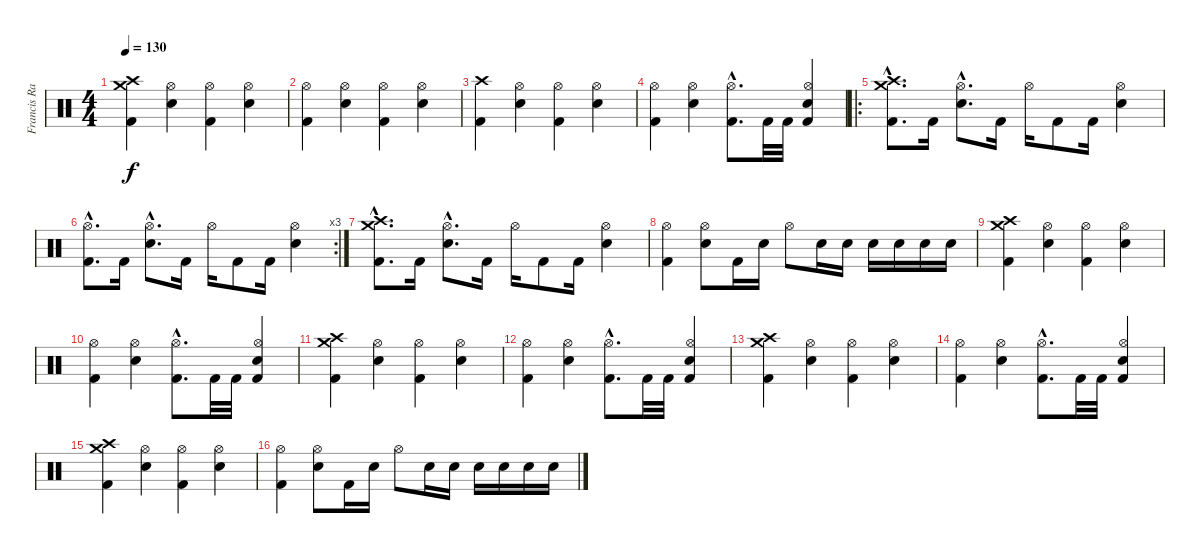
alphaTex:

\track ("Francis Ramirez" "Francis Ra") {instrument percussion}
\staff {score}
\articulation defaults
\ts (4 4)
\tempo 130
\clef neutral
\ks c
("Crash high (hit)" "Crash medium (hit)" "Kick (hit) 2").4{dy f} ("Hi-Hat (open)" "Electric Snare (hit)").4 ("Hi-Hat (open)" "Kick (hit) 2").4 ("Hi-Hat (open)" "Electric Snare (hit)").4 |
("Hi-Hat (open)" "Kick (hit) 2").4 ("Hi-Hat (open)" "Electric Snare (hit)").4 ("Hi-Hat (open)" "Kick (hit) 2").4 ("Hi-Hat (open)" "Electric Snare (hit)").4 |
("Crash high (hit)" "Kick (hit) 2").4 ("Hi-Hat (open)" "Electric Snare (hit)").4 ("Hi-Hat (open)" "Kick (hit) 2").4 ("Hi-Hat (open)" "Electric Snare (hit)").4 |
("Hi-Hat (open)" "Kick (hit) 2").4 ("Hi-Hat (open)" "Electric Snare (hit)").4 ("Hi-Hat (open)"{hac} "Kick (hit) 2"{hac}).8{d} "Kick (hit) 2".32 "Kick (hit) 2".32 ("Hi-Hat (open)" "Electric Snare (hit)" "Kick (hit) 2").4 |
\ro
("Crash high (hit)"{hac} "Crash medium (hit)"{hac} "Kick (hit) 2"{hac}).8{d} "Kick (hit) 2".16 ("Hi-Hat (open)"{hac} "Electric Snare (hit)"{hac}).8{d} "Kick (hit) 2".16 "Hi-Hat (open)".16 "Kick (hit) 2".8 "Kick (hit) 2".16 ("Hi-Hat (open)" "Electric Snare (hit)").4 |
\rc 3
("Hi-Hat (open)"{hac} "Kick (hit) 2"{hac}).8{d} "Kick (hit) 2".16 ("Hi-Hat (open)"{hac} "Electric Snare (hit)"{hac}).8{d} "Kick (hit) 2".16 "Hi-Hat (open)".16 "Kick (hit) 2".8 "Kick (hit) 2".16 ("Hi-Hat (open)" "Electric Snare (hit)").4 |
("Crash high (hit)"{hac} "Crash medium (hit)"{hac} "Kick (hit) 2"{hac}).8{d} "Kick (hit) 2".16 ("Hi-Hat (open)"{hac} "Electric Snare (hit)"{hac}).8{d} "Kick (hit) 2".16 "Hi-Hat (open)".16 "Kick (hit) 2".8 "Kick (hit) 2".16 ("Hi-Hat (open)" "Electric Snare (hit)").4 |
("Hi-Hat (open)" "Kick (hit) 2").4 ("Hi-Hat (open)" "Electric Snare (hit)").8 "Kick (hit) 2".16 "Electric Snare (hit)".16 "Hi-Hat (open)".8 "Electric Snare (hit)".16 "Electric Snare (hit)".16 "Electric Snare (hit)".16 "Electric Snare (hit)".16 "Electric Snare (hit)".16 "Electric Snare (hit)".16 |
("Crash high (hit)" "Crash medium (hit)" "Kick (hit) 2").4 ("Hi-Hat (open)" "Electric Snare (hit)").4 ("Hi-Hat (open)" "Kick (hit) 2").4 ("Hi-Hat (open)" "Electric Snare (hit)").4 |
("Hi-Hat (open)" "Kick (hit) 2").4 ("Hi-Hat (open)" "Electric Snare (hit)").4 ("Hi-Hat (open)"{hac} "Kick (hit) 2"{hac}).8{d} "Kick (hit) 2".32 "Kick (hit) 2".32 ("Hi-Hat (open)" "Electric Snare (hit)" "Kick (hit) 2").4 |
("Crash high (hit)" "Crash medium (hit)" "Kick (hit) 2").4 ("Hi-Hat (open)" "Electric Snare (hit)").4 ("Hi-Hat (open)" "Kick (hit) 2").4 ("Hi-Hat (open)" "Electric Snare (hit)").4 |
("Hi-Hat (open)" "Kick (hit) 2").4 ("Hi-Hat (open)" "Electric Snare (hit)").4 ("Hi-Hat (open)"{hac} "Kick (hit) 2"{hac}).8{d} "Kick (hit) 2".32 "Kick (hit) 2".32 ("Hi-Hat (open)" "Electric Snare (hit)" "Kick (hit) 2").4 |
("Crash high (hit)" "Crash medium (hit)" "Kick (hit) 2").4 ("Hi-Hat (open)" "Electric Snare (hit)").4 ("Hi-Hat (open)" "Kick (hit) 2").4 ("Hi-Hat (open)" "Electric Snare (hit)").4 |
("Hi-Hat (open)" "Kick (hit) 2").4 ("Hi-Hat (open)" "Electric Snare (hit)").4 ("Hi-Hat (open)"{hac} "Kick (hit) 2"{hac}).8{d} "Kick (hit) 2".32 "Kick (hit) 2".32 ("Hi-Hat (open)" "Electric Snare (hit)" "Kick (hit) 2").4 |
("Crash high (hit)" "Crash medium (hit)" "Kick (hit) 2").4 ("Hi-Hat (open)" "Electric Snare (hit)").4 ("Hi-Hat (open)" "Kick (hit) 2").4 ("Hi-Hat (open)" "Electric Snare (hit)").4 |
("Hi-Hat (open)" "Kick (hit) 2").4 ("Hi-Hat (open)" "Electric Snare (hit)").8 "Kick (hit) 2".16 "Electric Snare (hit)".16 "Hi-Hat (open)".8 "Electric Snare (hit)".16 "Electric Snare (hit)".16 "Electric Snare (hit)".16 "Electric Snare (hit)".16 "Electric Snare (hit)".16 "Electric Snare (hit)".16
